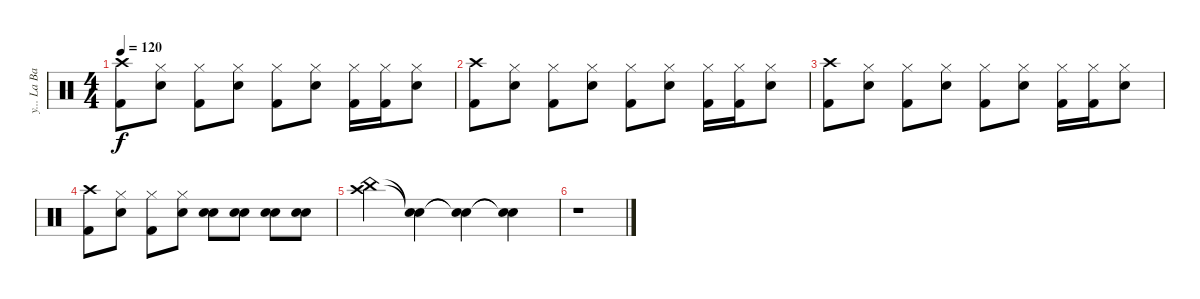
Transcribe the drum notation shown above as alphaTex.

\track ("y... La Bataka" "y... La Ba") {instrument percussion}
\staff {score}
\articulation defaults
\ts (4 4)
\tempo 120
\clef neutral
\ks c
("Crash high (hit)" "Kick (hit) 2").8{dy f} ("Hi-Hat (closed)" "Snare (hit) 2").8 ("Hi-Hat (closed)" "Kick (hit) 2").8 ("Hi-Hat (closed)" "Snare (hit) 2").8 ("Hi-Hat (closed)" "Kick (hit) 2").8 ("Hi-Hat (closed)" "Snare (hit) 2").8 ("Hi-Hat (closed)" "Kick (hit) 2").16 ("Hi-Hat (closed)" "Kick (hit) 2").16 ("Hi-Hat (closed)" "Snare (hit) 2").8 |
("Crash high (hit)" "Kick (hit) 2").8 ("Hi-Hat (closed)" "Snare (hit) 2").8 ("Hi-Hat (closed)" "Kick (hit) 2").8 ("Hi-Hat (closed)" "Snare (hit) 2").8 ("Hi-Hat (closed)" "Kick (hit) 2").8 ("Hi-Hat (closed)" "Snare (hit) 2").8 ("Hi-Hat (closed)" "Kick (hit) 2").16 ("Hi-Hat (closed)" "Kick (hit) 2").16 ("Hi-Hat (closed)" "Snare (hit) 2").8 |
("Crash high (hit)" "Kick (hit) 2").8 ("Hi-Hat (closed)" "Snare (hit) 2").8 ("Hi-Hat (closed)" "Kick (hit) 2").8 ("Hi-Hat (closed)" "Snare (hit) 2").8 ("Hi-Hat (closed)" "Kick (hit) 2").8 ("Hi-Hat (closed)" "Snare (hit) 2").8 ("Hi-Hat (closed)" "Kick (hit) 2").16 ("Hi-Hat (closed)" "Kick (hit) 2").16 ("Hi-Hat (closed)" "Snare (hit) 2").8 |
("Crash high (hit)" "Kick (hit) 2").8 ("Hi-Hat (closed)" "Snare (hit) 2").8 ("Hi-Hat (closed)" "Kick (hit) 2").8 ("Hi-Hat (closed)" "Snare (hit) 2").8 ("Snare (hit) 2" "Snare (hit) 2").8 ("Snare (hit) 2" "Snare (hit) 2").8 ("Snare (hit) 2" "Snare (hit) 2").8 ("Snare (hit) 2" "Snare (hit) 2").8 |
("Crash high (hit)" "China (hit)").4 ("Snare (hit)"{t} "Snare (hit)"{t}).4 ("Snare (hit)"{t} "Snare (hit)"{t}).4 ("Snare (hit)"{t} "Snare (hit)"{t}).4 |
r.1
